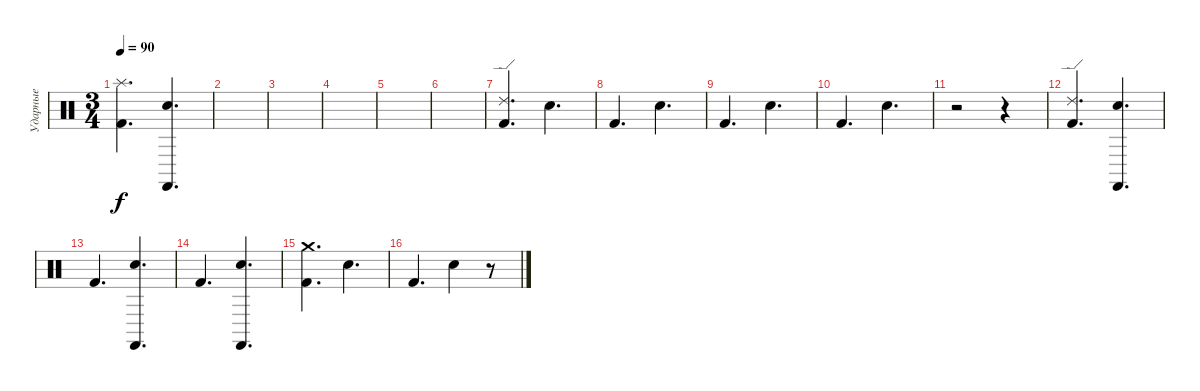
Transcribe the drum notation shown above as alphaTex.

\track ("Ударные" "Ударные") {instrument percussion}
\staff {score}
\articulation defaults
\ts (3 4)
\tempo 90
\clef neutral
\ks c
("Splash (hit)" "Kick (hit) 2").4{d dy f} ("Castanets (hit)" "Snare (hit) 2").4{d} |
|
|
|
|
|
("Ride (edge) 2" "Kick (hit) 2").4{d} "Snare (hit) 2".4{d} |
"Kick (hit) 2".4{d} "Snare (hit) 2".4{d} |
"Kick (hit) 2".4{d} "Snare (hit) 2".4{d} |
"Kick (hit) 2".4{d} "Snare (hit) 2".4{d} |
r.2 r.4 |
("Ride (edge) 2" "Kick (hit) 2").4{d} ("Castanets (hit)" "Snare (hit) 2").4{d} |
"Kick (hit) 2".4{d} ("Castanets (hit)" "Snare (hit) 2").4{d} |
"Kick (hit) 2".4{d} ("Castanets (hit)" "Snare (hit) 2").4{d} |
("Crash medium (hit)" "Kick (hit) 2").4{d} "Snare (hit) 2".4{d} |
"Kick (hit) 2".4{d} "Snare (hit) 2".4 r.8
